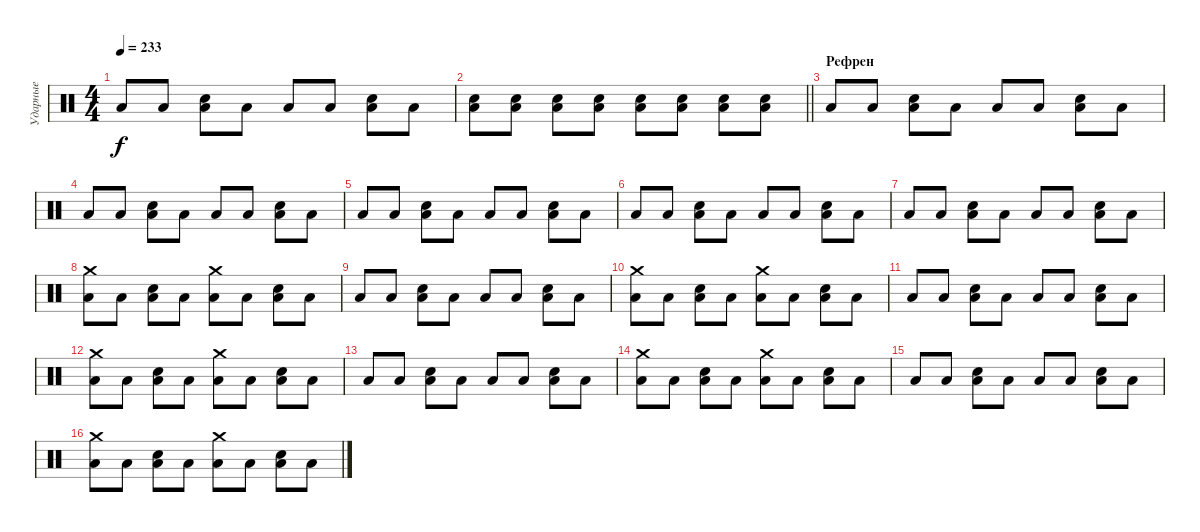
\track ("Ударные" "Ударные") {instrument percussion}
\staff {score}
\articulation defaults
\ts (4 4)
\tempo 233
\clef neutral
\ks c "Low Tom (hit)".8{dy f} "Low Tom (hit)".8
("Electric Snare (hit)" "Low Tom (hit)").8 "Low Tom (hit)".8 "Low Tom (hit)".8 "Low Tom (hit)".8 ("Electric Snare (hit)" "Low Tom (hit)").8 "Low Tom (hit)".8 |
\barLineRight lightlight
("Electric Snare (hit)" "Low Tom (hit)").8 ("Electric Snare (hit)" "Low Tom (hit)").8 ("Electric Snare (hit)" "Low Tom (hit)").8 ("Electric Snare (hit)" "Low Tom (hit)").8 ("Electric Snare (hit)" "Low Tom (hit)").8 ("Electric Snare (hit)" "Low Tom (hit)").8 ("Electric Snare (hit)" "Low Tom (hit)").8 ("Electric Snare (hit)" "Low Tom (hit)").8 |
\section ("" "Рефрен")
"Low Tom (hit)".8 "Low Tom (hit)".8 ("Electric Snare (hit)" "Low Tom (hit)").8 "Low Tom (hit)".8 "Low Tom (hit)".8 "Low Tom (hit)".8 ("Electric Snare (hit)" "Low Tom (hit)").8 "Low Tom (hit)".8 |
"Low Tom (hit)".8 "Low Tom (hit)".8 ("Electric Snare (hit)" "Low Tom (hit)").8 "Low Tom (hit)".8 "Low Tom (hit)".8 "Low Tom (hit)".8 ("Electric Snare (hit)" "Low Tom (hit)").8 "Low Tom (hit)".8 |
"Low Tom (hit)".8 "Low Tom (hit)".8 ("Electric Snare (hit)" "Low Tom (hit)").8 "Low Tom (hit)".8 "Low Tom (hit)".8 "Low Tom (hit)".8 ("Electric Snare (hit)" "Low Tom (hit)").8 "Low Tom (hit)".8 |
"Low Tom (hit)".8 "Low Tom (hit)".8 ("Electric Snare (hit)" "Low Tom (hit)").8 "Low Tom (hit)".8 "Low Tom (hit)".8 "Low Tom (hit)".8 ("Electric Snare (hit)" "Low Tom (hit)").8 "Low Tom (hit)".8 |
"Low Tom (hit)".8 "Low Tom (hit)".8 ("Electric Snare (hit)" "Low Tom (hit)").8 "Low Tom (hit)".8 "Low Tom (hit)".8 "Low Tom (hit)".8 ("Electric Snare (hit)" "Low Tom (hit)").8 "Low Tom (hit)".8 |
("Crash medium (hit)" "Low Tom (hit)").8 "Low Tom (hit)".8 ("Electric Snare (hit)" "Low Tom (hit)").8 "Low Tom (hit)".8 ("Crash medium (hit)" "Low Tom (hit)").8 "Low Tom (hit)".8 ("Electric Snare (hit)" "Low Tom (hit)").8 "Low Tom (hit)".8 |
"Low Tom (hit)".8 "Low Tom (hit)".8 ("Electric Snare (hit)" "Low Tom (hit)").8 "Low Tom (hit)".8 "Low Tom (hit)".8 "Low Tom (hit)".8 ("Electric Snare (hit)" "Low Tom (hit)").8 "Low Tom (hit)".8 |
("Crash medium (hit)" "Low Tom (hit)").8 "Low Tom (hit)".8 ("Electric Snare (hit)" "Low Tom (hit)").8 "Low Tom (hit)".8 ("Crash medium (hit)" "Low Tom (hit)").8 "Low Tom (hit)".8 ("Electric Snare (hit)" "Low Tom (hit)").8 "Low Tom (hit)".8 |
"Low Tom (hit)".8 "Low Tom (hit)".8 ("Electric Snare (hit)" "Low Tom (hit)").8 "Low Tom (hit)".8 "Low Tom (hit)".8 "Low Tom (hit)".8 ("Electric Snare (hit)" "Low Tom (hit)").8 "Low Tom (hit)".8 |
("Crash medium (hit)" "Low Tom (hit)").8 "Low Tom (hit)".8 ("Electric Snare (hit)" "Low Tom (hit)").8 "Low Tom (hit)".8 ("Crash medium (hit)" "Low Tom (hit)").8 "Low Tom (hit)".8 ("Electric Snare (hit)" "Low Tom (hit)").8 "Low Tom (hit)".8 |
"Low Tom (hit)".8 "Low Tom (hit)".8 ("Electric Snare (hit)" "Low Tom (hit)").8 "Low Tom (hit)".8 "Low Tom (hit)".8 "Low Tom (hit)".8 ("Electric Snare (hit)" "Low Tom (hit)").8 "Low Tom (hit)".8 |
("Crash medium (hit)" "Low Tom (hit)").8 "Low Tom (hit)".8 ("Electric Snare (hit)" "Low Tom (hit)").8 "Low Tom (hit)".8 ("Crash medium (hit)" "Low Tom (hit)").8 "Low Tom (hit)".8 ("Electric Snare (hit)" "Low Tom (hit)").8 "Low Tom (hit)".8 |
"Low Tom (hit)".8 "Low Tom (hit)".8 ("Electric Snare (hit)" "Low Tom (hit)").8 "Low Tom (hit)".8 "Low Tom (hit)".8 "Low Tom (hit)".8 ("Electric Snare (hit)" "Low Tom (hit)").8 "Low Tom (hit)".8 |
("Crash medium (hit)" "Low Tom (hit)").8 "Low Tom (hit)".8 ("Electric Snare (hit)" "Low Tom (hit)").8 "Low Tom (hit)".8 ("Crash medium (hit)" "Low Tom (hit)").8 "Low Tom (hit)".8 ("Electric Snare (hit)" "Low Tom (hit)").8 "Low Tom (hit)".8
